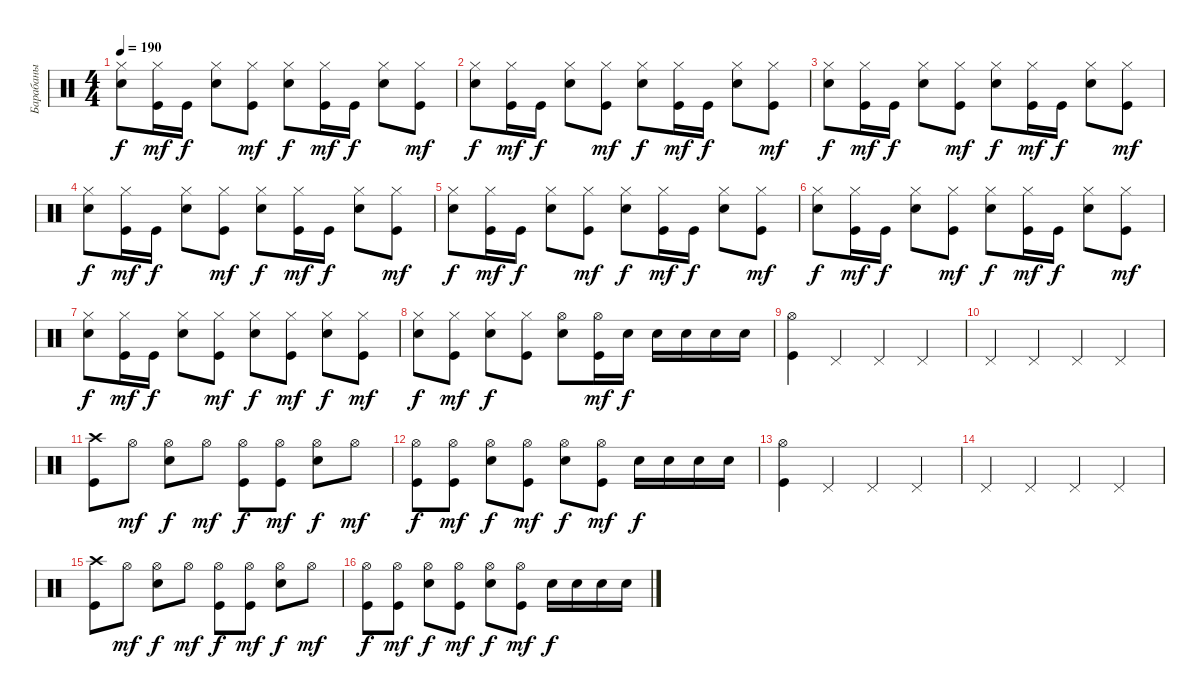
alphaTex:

\track ("Барабаны" "Барабаны") {instrument percussion}
\staff {score}
\articulation defaults
\ts (4 4)
\tempo 190
\clef neutral
\ks c
("Hi-Hat (closed)" "Electric Snare (hit)").8{dy f} ("Hi-Hat (closed)" "Kick (hit)").16{dy mf} "Kick (hit)".16{dy f} ("Hi-Hat (closed)" "Electric Snare (hit)").8 ("Hi-Hat (closed)" "Kick (hit)").8{dy mf} ("Hi-Hat (closed)" "Electric Snare (hit)").8{dy f} ("Hi-Hat (closed)" "Kick (hit)").16{dy mf} "Kick (hit)".16{dy f} ("Hi-Hat (closed)" "Electric Snare (hit)").8 ("Hi-Hat (closed)" "Kick (hit)").8{dy mf} |
("Hi-Hat (closed)" "Electric Snare (hit)").8{dy f} ("Hi-Hat (closed)" "Kick (hit)").16{dy mf} "Kick (hit)".16{dy f} ("Hi-Hat (closed)" "Electric Snare (hit)").8 ("Hi-Hat (closed)" "Kick (hit)").8{dy mf} ("Hi-Hat (closed)" "Electric Snare (hit)").8{dy f} ("Hi-Hat (closed)" "Kick (hit)").16{dy mf} "Kick (hit)".16{dy f} ("Hi-Hat (closed)" "Electric Snare (hit)").8 ("Hi-Hat (closed)" "Kick (hit)").8{dy mf} |
("Hi-Hat (closed)" "Electric Snare (hit)").8{dy f} ("Hi-Hat (closed)" "Kick (hit)").16{dy mf} "Kick (hit)".16{dy f} ("Hi-Hat (closed)" "Electric Snare (hit)").8 ("Hi-Hat (closed)" "Kick (hit)").8{dy mf} ("Hi-Hat (closed)" "Electric Snare (hit)").8{dy f} ("Hi-Hat (closed)" "Kick (hit)").16{dy mf} "Kick (hit)".16{dy f} ("Hi-Hat (closed)" "Electric Snare (hit)").8 ("Hi-Hat (closed)" "Kick (hit)").8{dy mf} |
("Hi-Hat (closed)" "Electric Snare (hit)").8{dy f} ("Hi-Hat (closed)" "Kick (hit)").16{dy mf} "Kick (hit)".16{dy f} ("Hi-Hat (closed)" "Electric Snare (hit)").8 ("Hi-Hat (closed)" "Kick (hit)").8{dy mf} ("Hi-Hat (closed)" "Electric Snare (hit)").8{dy f} ("Hi-Hat (closed)" "Kick (hit)").16{dy mf} "Kick (hit)".16{dy f} ("Hi-Hat (closed)" "Electric Snare (hit)").8 ("Hi-Hat (closed)" "Kick (hit)").8{dy mf} |
("Hi-Hat (closed)" "Electric Snare (hit)").8{dy f} ("Hi-Hat (closed)" "Kick (hit)").16{dy mf} "Kick (hit)".16{dy f} ("Hi-Hat (closed)" "Electric Snare (hit)").8 ("Hi-Hat (closed)" "Kick (hit)").8{dy mf} ("Hi-Hat (closed)" "Electric Snare (hit)").8{dy f} ("Hi-Hat (closed)" "Kick (hit)").16{dy mf} "Kick (hit)".16{dy f} ("Hi-Hat (closed)" "Electric Snare (hit)").8 ("Hi-Hat (closed)" "Kick (hit)").8{dy mf} |
("Hi-Hat (closed)" "Electric Snare (hit)").8{dy f} ("Hi-Hat (closed)" "Kick (hit)").16{dy mf} "Kick (hit)".16{dy f} ("Hi-Hat (closed)" "Electric Snare (hit)").8 ("Hi-Hat (closed)" "Kick (hit)").8{dy mf} ("Hi-Hat (closed)" "Electric Snare (hit)").8{dy f} ("Hi-Hat (closed)" "Kick (hit)").16{dy mf} "Kick (hit)".16{dy f} ("Hi-Hat (closed)" "Electric Snare (hit)").8 ("Hi-Hat (closed)" "Kick (hit)").8{dy mf} |
("Hi-Hat (closed)" "Electric Snare (hit)").8{dy f} ("Hi-Hat (closed)" "Kick (hit)").16{dy mf} "Kick (hit)".16{dy f} ("Hi-Hat (closed)" "Electric Snare (hit)").8 ("Hi-Hat (closed)" "Kick (hit)").8{dy mf} ("Hi-Hat (closed)" "Electric Snare (hit)").8{dy f} ("Hi-Hat (closed)" "Kick (hit)").8{dy mf} ("Hi-Hat (closed)" "Electric Snare (hit)").8{dy f} ("Hi-Hat (closed)" "Kick (hit)").8{dy mf} |
("Hi-Hat (closed)" "Electric Snare (hit)").8{dy f} ("Hi-Hat (closed)" "Kick (hit)").8{dy mf} ("Hi-Hat (closed)" "Electric Snare (hit)").8{dy f} ("Hi-Hat (closed)" "Kick (hit)").8 ("Hi-Hat (open)" "Electric Snare (hit)").8 ("Hi-Hat (open)" "Kick (hit)").16{dy mf} "Electric Snare (hit)".16{dy f} "Electric Snare (hit)".16 "Electric Snare (hit)".16 "Electric Snare (hit)".16 "Electric Snare (hit)".16 |
("Hi-Hat (open)" "Kick (hit)").4 "Pedal Hi-Hat (hit)".4 "Pedal Hi-Hat (hit)".4 "Pedal Hi-Hat (hit)".4 |
"Pedal Hi-Hat (hit)".4 "Pedal Hi-Hat (hit)".4 "Pedal Hi-Hat (hit)".4 "Pedal Hi-Hat (hit)".4 |
("Crash high (hit)" "Kick (hit)").8 "Hi-Hat (open)".8{dy mf} ("Hi-Hat (open)" "Electric Snare (hit)").8{dy f} "Hi-Hat (open)".8{dy mf} ("Hi-Hat (open)" "Kick (hit)").8{dy f} ("Hi-Hat (open)" "Kick (hit)").8{dy mf} ("Hi-Hat (open)" "Electric Snare (hit)").8{dy f} "Hi-Hat (open)".8{dy mf} |
("Hi-Hat (open)" "Kick (hit)").8{dy f} ("Hi-Hat (open)" "Kick (hit)").8{dy mf} ("Hi-Hat (open)" "Electric Snare (hit)").8{dy f} ("Hi-Hat (open)" "Kick (hit)").8{dy mf} ("Hi-Hat (open)" "Electric Snare (hit)").8{dy f} ("Hi-Hat (open)" "Kick (hit)").8{dy mf} "Electric Snare (hit)".16{dy f} "Electric Snare (hit)".16 "Electric Snare (hit)".16 "Electric Snare (hit)".16 |
("Hi-Hat (open)" "Kick (hit)").4 "Pedal Hi-Hat (hit)".4 "Pedal Hi-Hat (hit)".4 "Pedal Hi-Hat (hit)".4 |
"Pedal Hi-Hat (hit)".4 "Pedal Hi-Hat (hit)".4 "Pedal Hi-Hat (hit)".4 "Pedal Hi-Hat (hit)".4 |
("Crash high (hit)" "Kick (hit)").8 "Hi-Hat (open)".8{dy mf} ("Hi-Hat (open)" "Electric Snare (hit)").8{dy f} "Hi-Hat (open)".8{dy mf} ("Hi-Hat (open)" "Kick (hit)").8{dy f} ("Hi-Hat (open)" "Kick (hit)").8{dy mf} ("Hi-Hat (open)" "Electric Snare (hit)").8{dy f} "Hi-Hat (open)".8{dy mf} |
("Hi-Hat (open)" "Kick (hit)").8{dy f} ("Hi-Hat (open)" "Kick (hit)").8{dy mf} ("Hi-Hat (open)" "Electric Snare (hit)").8{dy f} ("Hi-Hat (open)" "Kick (hit)").8{dy mf} ("Hi-Hat (open)" "Electric Snare (hit)").8{dy f} ("Hi-Hat (open)" "Kick (hit)").8{dy mf} "Electric Snare (hit)".16{dy f} "Electric Snare (hit)".16 "Electric Snare (hit)".16 "Electric Snare (hit)".16
